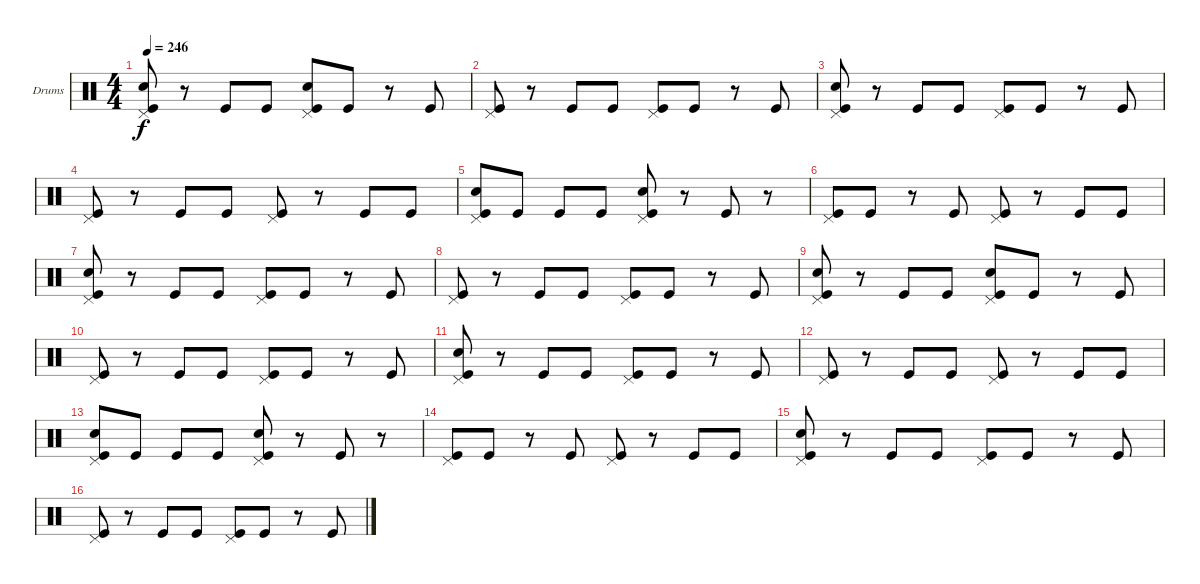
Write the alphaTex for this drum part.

\bracketExtendMode groupsimilarinstruments
\firstSystemTrackNameOrientation horizontal
\otherSystemsTrackNameOrientation horizontal
\track ("Drumkit" "Drums") {instrument percussion}
\staff {score}
\articulation defaults
\ts (4 4)
\tempo 246
\clef neutral
\ks c
("Pedal Hi-Hat (hit)" "Snare (hit) 2" "Kick (hit)").8{dy f} r.8 "Kick (hit)".8 "Kick (hit)".8 ("Kick (hit)" "Pedal Hi-Hat (hit)" "Snare (hit) 2").8 "Kick (hit)".8 r.8 "Kick (hit)".8 |
("Pedal Hi-Hat (hit)" "Kick (hit)").8 r.8 "Kick (hit)".8 "Kick (hit)".8 ("Pedal Hi-Hat (hit)" "Kick (hit)").8 "Kick (hit)".8 r.8 "Kick (hit)".8 |
("Pedal Hi-Hat (hit)" "Snare (hit) 2" "Kick (hit)").8 r.8 "Kick (hit)".8 "Kick (hit)".8 ("Kick (hit)" "Pedal Hi-Hat (hit)").8 "Kick (hit)".8 r.8 "Kick (hit)".8 |
("Kick (hit)" "Pedal Hi-Hat (hit)").8 r.8 "Kick (hit)".8 "Kick (hit)".8 ("Pedal Hi-Hat (hit)" "Kick (hit)").8 r.8 "Kick (hit)".8 "Kick (hit)".8 |
("Pedal Hi-Hat (hit)" "Snare (hit) 2" "Kick (hit)").8 "Kick (hit)".8 "Kick (hit)".8 "Kick (hit)".8 ("Kick (hit)" "Pedal Hi-Hat (hit)" "Snare (hit) 2").8 r.8 "Kick (hit)".8 r.8 |
("Kick (hit)" "Pedal Hi-Hat (hit)").8 "Kick (hit)".8 r.8 "Kick (hit)".8 ("Pedal Hi-Hat (hit)" "Kick (hit)").8 r.8 "Kick (hit)".8 "Kick (hit)".8 |
("Pedal Hi-Hat (hit)" "Snare (hit) 2" "Kick (hit)").8 r.8 "Kick (hit)".8 "Kick (hit)".8 ("Pedal Hi-Hat (hit)" "Kick (hit)").8 "Kick (hit)".8 r.8 "Kick (hit)".8 |
("Kick (hit)" "Pedal Hi-Hat (hit)").8 r.8 "Kick (hit)".8 "Kick (hit)".8 ("Pedal Hi-Hat (hit)" "Kick (hit)").8 "Kick (hit)".8 r.8 "Kick (hit)".8 |
("Pedal Hi-Hat (hit)" "Snare (hit) 2" "Kick (hit)").8 r.8 "Kick (hit)".8 "Kick (hit)".8 ("Kick (hit)" "Pedal Hi-Hat (hit)" "Snare (hit) 2").8 "Kick (hit)".8 r.8 "Kick (hit)".8 |
("Pedal Hi-Hat (hit)" "Kick (hit)").8 r.8 "Kick (hit)".8 "Kick (hit)".8 ("Pedal Hi-Hat (hit)" "Kick (hit)").8 "Kick (hit)".8 r.8 "Kick (hit)".8 |
("Pedal Hi-Hat (hit)" "Snare (hit) 2" "Kick (hit)").8 r.8 "Kick (hit)".8 "Kick (hit)".8 ("Kick (hit)" "Pedal Hi-Hat (hit)").8 "Kick (hit)".8 r.8 "Kick (hit)".8 |
("Kick (hit)" "Pedal Hi-Hat (hit)").8 r.8 "Kick (hit)".8 "Kick (hit)".8 ("Pedal Hi-Hat (hit)" "Kick (hit)").8 r.8 "Kick (hit)".8 "Kick (hit)".8 |
("Pedal Hi-Hat (hit)" "Snare (hit) 2" "Kick (hit)").8 "Kick (hit)".8 "Kick (hit)".8 "Kick (hit)".8 ("Kick (hit)" "Pedal Hi-Hat (hit)" "Snare (hit) 2").8 r.8 "Kick (hit)".8 r.8 |
("Kick (hit)" "Pedal Hi-Hat (hit)").8 "Kick (hit)".8 r.8 "Kick (hit)".8 ("Pedal Hi-Hat (hit)" "Kick (hit)").8 r.8 "Kick (hit)".8 "Kick (hit)".8 |
("Pedal Hi-Hat (hit)" "Snare (hit) 2" "Kick (hit)").8 r.8 "Kick (hit)".8 "Kick (hit)".8 ("Pedal Hi-Hat (hit)" "Kick (hit)").8 "Kick (hit)".8 r.8 "Kick (hit)".8 |
("Kick (hit)" "Pedal Hi-Hat (hit)").8 r.8 "Kick (hit)".8 "Kick (hit)".8 ("Pedal Hi-Hat (hit)" "Kick (hit)").8 "Kick (hit)".8 r.8 "Kick (hit)".8
